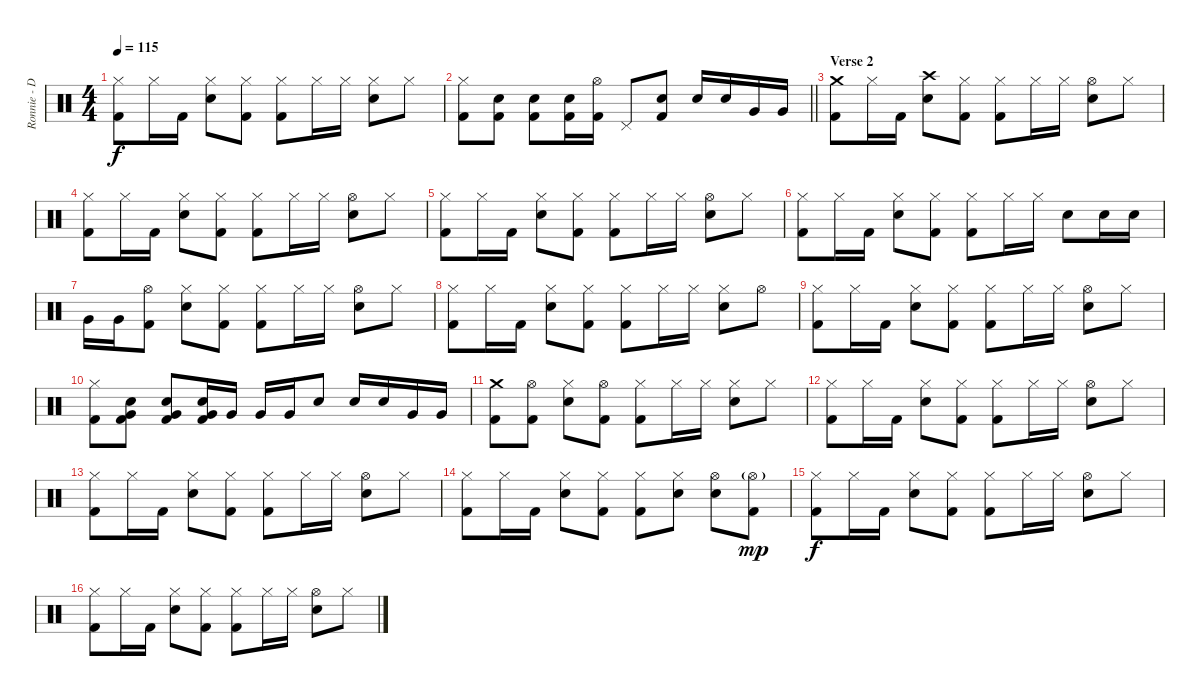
\track ("Ronnie - Drums" "Ronnie - D") {instrument percussion}
\staff {score}
\articulation defaults
\ts (4 4)
\tempo 115
\clef neutral
\ks c
("Hi-Hat (closed)" "Kick (hit) 2").8{dy f} "Hi-Hat (closed)".16 "Kick (hit) 2".16 ("Hi-Hat (closed)" "Electric Snare (hit)").8 ("Hi-Hat (closed)" "Kick (hit) 2").8 ("Hi-Hat (closed)" "Kick (hit) 2").8 "Hi-Hat (closed)".16 "Hi-Hat (closed)".16 ("Hi-Hat (closed)" "Electric Snare (hit)").8 "Hi-Hat (closed)".8 |
\barLineRight lightlight
("Hi-Hat (closed)" "Kick (hit) 2").8 ("Electric Snare (hit)" "Kick (hit) 2").8 ("Electric Snare (hit)" "Kick (hit) 2").8 ("Electric Snare (hit)" "Kick (hit) 2").16 ("Hi-Hat (open)" "Kick (hit) 2").16 "Pedal Hi-Hat (hit)".8 ("Electric Snare (hit)" "Kick (hit) 2").8 "Electric Snare (hit)".16 "Electric Snare (hit)".16 "Very Low Tom (hit)".16 "Very Low Tom (hit)".16 |
\section ("" "Verse 2")
("Crash medium (hit)" "Kick (hit) 2").8 "Hi-Hat (closed)".16 "Kick (hit) 2".16 ("Crash high (hit)" "Electric Snare (hit)").8 ("Hi-Hat (closed)" "Kick (hit) 2").8 ("Hi-Hat (closed)" "Kick (hit) 2").8 "Hi-Hat (closed)".16 "Hi-Hat (closed)".16 ("Hi-Hat (open)" "Electric Snare (hit)").8 "Hi-Hat (closed)".8 |
("Hi-Hat (closed)" "Kick (hit) 2").8 "Hi-Hat (closed)".16 "Kick (hit) 2".16 ("Hi-Hat (closed)" "Electric Snare (hit)").8 ("Hi-Hat (closed)" "Kick (hit) 2").8 ("Hi-Hat (closed)" "Kick (hit) 2").8 "Hi-Hat (closed)".16 "Hi-Hat (closed)".16 ("Hi-Hat (open)" "Electric Snare (hit)").8 "Hi-Hat (closed)".8 |
("Hi-Hat (closed)" "Kick (hit) 2").8 "Hi-Hat (closed)".16 "Kick (hit) 2".16 ("Hi-Hat (closed)" "Electric Snare (hit)").8 ("Hi-Hat (closed)" "Kick (hit) 2").8 ("Hi-Hat (closed)" "Kick (hit) 2").8 "Hi-Hat (closed)".16 "Hi-Hat (closed)".16 ("Hi-Hat (open)" "Electric Snare (hit)").8 "Hi-Hat (closed)".8 |
("Hi-Hat (closed)" "Kick (hit) 2").8 "Hi-Hat (closed)".16 "Kick (hit) 2".16 ("Hi-Hat (closed)" "Electric Snare (hit)").8 ("Hi-Hat (closed)" "Kick (hit) 2").8 ("Hi-Hat (closed)" "Kick (hit) 2").8 "Hi-Hat (closed)".16 "Hi-Hat (closed)".16 "Electric Snare (hit)".8 "Electric Snare (hit)".16 "Electric Snare (hit)".16 |
"Very Low Tom (hit)".16 "Very Low Tom (hit)".16 ("Hi-Hat (open)" "Kick (hit) 2").8 ("Hi-Hat (closed)" "Electric Snare (hit)").8 ("Hi-Hat (closed)" "Kick (hit) 2").8 ("Hi-Hat (closed)" "Kick (hit) 2").8 "Hi-Hat (closed)".16 "Hi-Hat (closed)".16 ("Hi-Hat (open)" "Electric Snare (hit)").8 "Hi-Hat (closed)".8 |
("Hi-Hat (closed)" "Kick (hit) 2").8 "Hi-Hat (closed)".16 "Kick (hit) 2".16 ("Hi-Hat (closed)" "Electric Snare (hit)").8 ("Hi-Hat (closed)" "Kick (hit) 2").8 ("Hi-Hat (closed)" "Kick (hit) 2").8 "Hi-Hat (closed)".16 "Hi-Hat (closed)".16 ("Hi-Hat (closed)" "Electric Snare (hit)").8 "Hi-Hat (open)".8 |
("Hi-Hat (closed)" "Kick (hit) 2").8 "Hi-Hat (closed)".16 "Kick (hit) 2".16 ("Hi-Hat (closed)" "Electric Snare (hit)").8 ("Hi-Hat (closed)" "Kick (hit) 2").8 ("Hi-Hat (closed)" "Kick (hit) 2").8 "Hi-Hat (closed)".16 "Hi-Hat (closed)".16 ("Hi-Hat (open)" "Electric Snare (hit)").8 "Hi-Hat (closed)".8 |
("Hi-Hat (closed)" "Kick (hit) 2").8 ("Very Low Tom (hit)" "Electric Snare (hit)" "Kick (hit) 2").8 ("Very Low Tom (hit)" "Electric Snare (hit)" "Kick (hit) 2").8 ("Very Low Tom (hit)" "Electric Snare (hit)" "Kick (hit) 2").16 "Very Low Tom (hit)".16 "Very Low Tom (hit)".16 "Very Low Tom (hit)".16 "Electric Snare (hit)".8 "Electric Snare (hit)".16 "Electric Snare (hit)".16 "Very Low Tom (hit)".16 "Very Low Tom (hit)".16 |
("Crash medium (hit)" "Kick (hit) 2").8 ("Hi-Hat (open)" "Kick (hit) 2").8 ("Hi-Hat (closed)" "Electric Snare (hit)").8 ("Hi-Hat (open)" "Kick (hit) 2").8 ("Hi-Hat (closed)" "Kick (hit) 2").8 "Hi-Hat (closed)".16 "Hi-Hat (closed)".16 ("Hi-Hat (closed)" "Electric Snare (hit)").8 "Hi-Hat (closed)".8 |
("Hi-Hat (closed)" "Kick (hit) 2").8 "Hi-Hat (closed)".16 "Kick (hit) 2".16 ("Hi-Hat (closed)" "Electric Snare (hit)").8 ("Hi-Hat (closed)" "Kick (hit) 2").8 ("Hi-Hat (closed)" "Kick (hit) 2").8 "Hi-Hat (closed)".16 "Hi-Hat (closed)".16 ("Hi-Hat (open)" "Electric Snare (hit)").8 "Hi-Hat (closed)".8 |
("Hi-Hat (closed)" "Kick (hit) 2").8 "Hi-Hat (closed)".16 "Kick (hit) 2".16 ("Hi-Hat (closed)" "Electric Snare (hit)").8 ("Hi-Hat (closed)" "Kick (hit) 2").8 ("Hi-Hat (closed)" "Kick (hit) 2").8 "Hi-Hat (closed)".16 "Hi-Hat (closed)".16 ("Hi-Hat (open)" "Electric Snare (hit)").8 "Hi-Hat (closed)".8 |
("Hi-Hat (closed)" "Kick (hit) 2").8 "Hi-Hat (closed)".16 "Kick (hit) 2".16 ("Hi-Hat (closed)" "Electric Snare (hit)").8 ("Hi-Hat (closed)" "Kick (hit) 2").8 ("Hi-Hat (closed)" "Kick (hit) 2").8 ("Hi-Hat (closed)" "Electric Snare (hit)").8 ("Hi-Hat (open)" "Electric Snare (hit)").8 ("Hi-Hat (open)"{g} "Kick (hit) 2").8{dy mp} |
("Hi-Hat (closed)" "Kick (hit) 2").8{dy f} "Hi-Hat (closed)".16 "Kick (hit) 2".16 ("Hi-Hat (closed)" "Electric Snare (hit)").8 ("Hi-Hat (closed)" "Kick (hit) 2").8 ("Hi-Hat (closed)" "Kick (hit) 2").8 "Hi-Hat (closed)".16 "Hi-Hat (closed)".16 ("Hi-Hat (open)" "Electric Snare (hit)").8 "Hi-Hat (closed)".8 |
("Hi-Hat (closed)" "Kick (hit) 2").8 "Hi-Hat (closed)".16 "Kick (hit) 2".16 ("Hi-Hat (closed)" "Electric Snare (hit)").8 ("Hi-Hat (closed)" "Kick (hit) 2").8 ("Hi-Hat (closed)" "Kick (hit) 2").8 "Hi-Hat (closed)".16 "Hi-Hat (closed)".16 ("Hi-Hat (open)" "Electric Snare (hit)").8 "Hi-Hat (closed)".8
